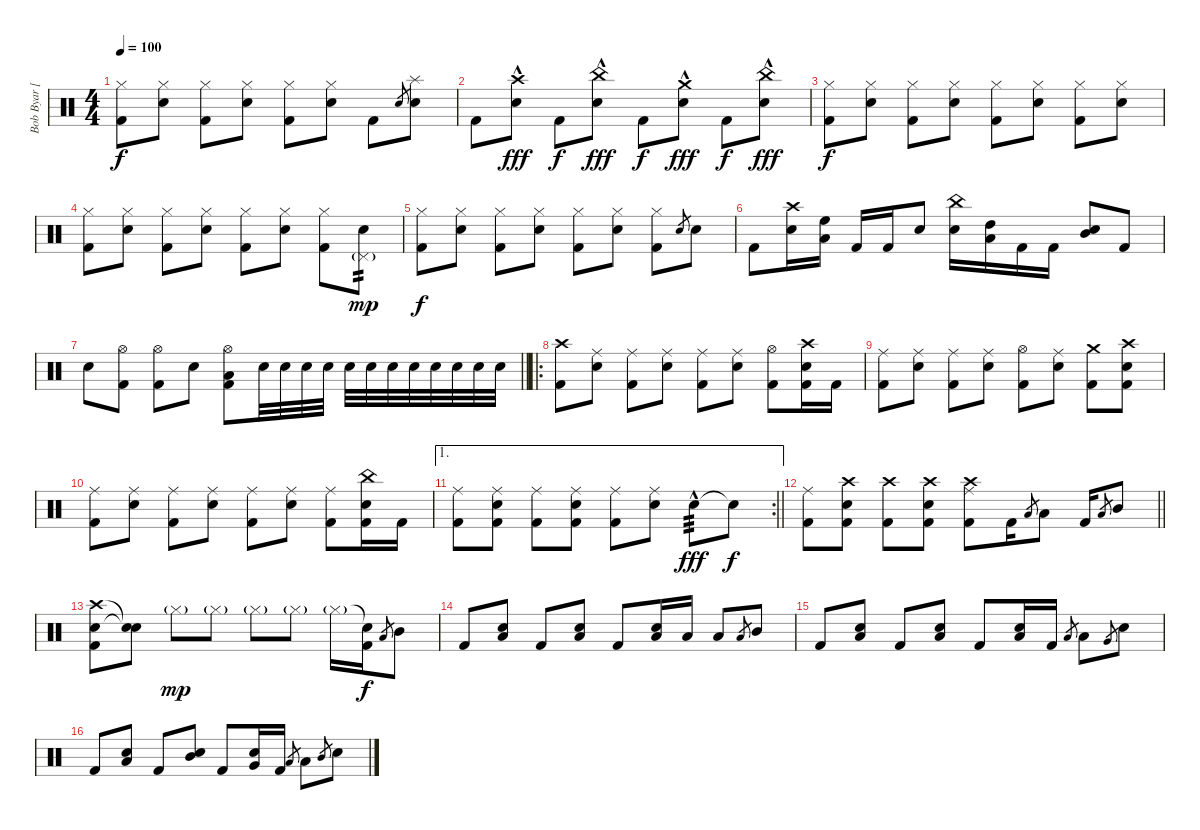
\track ("Bob Byar [Drums]" "Bob Byar [") {instrument percussion}
\staff {score}
\articulation defaults
\ts (4 4)
\tempo 100
\clef neutral
\ks c
("Hi-Hat (closed)" "Kick (hit) 2").8{dy f} ("Hi-Hat (closed)" "Electric Snare (hit)").8 ("Hi-Hat (closed)" "Kick (hit) 2").8 ("Hi-Hat (closed)" "Electric Snare (hit)").8 ("Hi-Hat (closed)" "Kick (hit) 2").8 ("Hi-Hat (closed)" "Electric Snare (hit)").8 "Kick (hit) 2".8 "Electric Snare (hit)".8{gr} ("Splash (hit)" "Electric Snare (hit)").8 |
"Kick (hit) 2".8 ("Crash high (hit)"{hac} "Electric Snare (hit)").8{dy fff} "Kick (hit) 2".8{dy f} ("China (hit)"{hac} "Electric Snare (hit)").8{dy fff} "Kick (hit) 2".8{dy f} ("Crash medium (hit)"{hac} "Electric Snare (hit)").8{dy fff} "Kick (hit) 2".8{dy f} ("China (hit)"{hac} "Electric Snare (hit)").8{dy fff} |
("Hi-Hat (closed)" "Kick (hit) 2").8{dy f} ("Hi-Hat (closed)" "Electric Snare (hit)").8 ("Hi-Hat (closed)" "Kick (hit) 2").8 ("Hi-Hat (closed)" "Electric Snare (hit)").8 ("Hi-Hat (closed)" "Kick (hit) 2").8 ("Hi-Hat (closed)" "Electric Snare (hit)").8 ("Hi-Hat (closed)" "Kick (hit) 2").8 ("Hi-Hat (closed)" "Electric Snare (hit)").8 |
("Hi-Hat (closed)" "Kick (hit) 2").8 ("Hi-Hat (closed)" "Electric Snare (hit)").8 ("Hi-Hat (closed)" "Kick (hit) 2").8 ("Hi-Hat (closed)" "Electric Snare (hit)").8 ("Hi-Hat (closed)" "Kick (hit) 2").8 ("Hi-Hat (closed)" "Electric Snare (hit)").8 ("Hi-Hat (closed)" "Kick (hit) 2").8 ("Pedal Hi-Hat (hit)"{g} "Electric Snare (hit)").8{tp 2 dy mp} |
("Hi-Hat (closed)" "Kick (hit) 2").8{dy f} ("Hi-Hat (closed)" "Electric Snare (hit)").8 ("Hi-Hat (closed)" "Kick (hit) 2").8 ("Hi-Hat (closed)" "Electric Snare (hit)").8 ("Hi-Hat (closed)" "Kick (hit) 2").8 ("Hi-Hat (closed)" "Electric Snare (hit)").8 ("Hi-Hat (closed)" "Kick (hit) 2").8 "Electric Snare (hit)".8{gr} "Electric Snare (hit)".8 |
"Kick (hit) 2".8 ("Crash high (hit)" "Electric Snare (hit)").16 ("High Floor Tom (hit)" "Low Tom (hit)").16 "Kick (hit) 2".16 "Kick (hit) 2".16 "Electric Snare (hit)".8 ("China (hit)" "Electric Snare (hit)").16 ("High Tom (hit)" "Low Tom (hit)").16 "Kick (hit) 2".16 "Kick (hit) 2".16 ("Mid Tom (hit)" "Electric Snare (hit)").8 "Kick (hit) 2".8 |
\barLineRight lightlight "Electric Snare (hit)".8
("Hi-Hat (open)" "Kick (hit) 2").8 ("Hi-Hat (open)" "Kick (hit) 2").8 "Electric Snare (hit)".8 ("Hi-Hat (open)" "Low Tom (hit)" "Kick (hit) 2").8 "Electric Snare (hit)".32 "Electric Snare (hit)".32 "Electric Snare (hit)".32 "Electric Snare (hit)".32 "Electric Snare (hit)".32 "Electric Snare (hit)".32 "Electric Snare (hit)".32 "Electric Snare (hit)".32 "Electric Snare (hit)".32 "Electric Snare (hit)".32 "Electric Snare (hit)".32 "Electric Snare (hit)".32 |
\ro
("Crash high (hit)" "Kick (hit) 2").8 ("Ride (middle)" "Electric Snare (hit)").8 ("Ride (middle)" "Kick (hit) 2").8 ("Ride (middle)" "Electric Snare (hit)").8 ("Ride (middle)" "Kick (hit) 2").8 ("Ride (middle)" "Electric Snare (hit)").8 ("Hi-Hat (open)" "Kick (hit) 2").8 ("Crash high (hit)" "Electric Snare (hit)" "Kick (hit) 2").16 "Kick (hit) 2".16 |
("Ride (middle)" "Kick (hit) 2").8 ("Ride (middle)" "Electric Snare (hit)").8 ("Ride (middle)" "Kick (hit) 2").8 ("Ride (middle)" "Electric Snare (hit)").8 ("Hi-Hat (open)" "Kick (hit) 2").8 ("Ride (middle)" "Electric Snare (hit)").8 ("Crash medium (hit)" "Kick (hit) 2").8 ("Crash high (hit)" "Electric Snare (hit)" "Kick (hit) 2").8 |
("Ride (middle)" "Kick (hit) 2").8 ("Ride (middle)" "Electric Snare (hit)").8 ("Ride (middle)" "Kick (hit) 2").8 ("Ride (middle)" "Electric Snare (hit)").8 ("Ride (middle)" "Kick (hit) 2").8 ("Ride (middle)" "Electric Snare (hit)").8 ("Ride (middle)" "Kick (hit) 2").8 ("China (hit)" "Electric Snare (hit)" "Kick (hit) 2").16 "Kick (hit) 2".16 |
\ae 1
\rc 2
\barLineRight lightlight
("Ride (middle)" "Kick (hit) 2").8 ("Ride (middle)" "Electric Snare (hit)" "Kick (hit) 2").8 ("Ride (middle)" "Kick (hit) 2").8 ("Ride (middle)" "Electric Snare (hit)" "Kick (hit) 2").8 ("Ride (middle)" "Kick (hit) 2").8 ("Ride (middle)" "Electric Snare (hit)").8 "Electric Snare (hit)"{hac}.8{tp 3 dy fff} "Electric Snare (hit)"{t}.8{dy f} |
\barLineRight lightlight
("Ride (middle)" "Kick (hit) 2").8 ("Crash high (hit)" "Electric Snare (hit)" "Kick (hit) 2").8 ("Crash high (hit)" "Kick (hit) 2").8 ("Crash high (hit)" "Electric Snare (hit)" "Kick (hit) 2").8 ("Ride (middle)" "Crash high (hit)" "Kick (hit) 2").8 "Kick (hit) 2".16 "Low Tom (hit)".8{gr} "Low Tom (hit)".8 "Kick (hit) 2".16 "Low Tom (hit)".8{gr} "Mid Tom (hit)".8 |
("Crash high (hit)" "Electric Snare (hit)" "Kick (hit) 2").8 ("Snare (hit)"{t} "Snare (hit)"{t}).8 "Hi-Hat (closed)"{g}.8{dy mp volume 16} "Hi-Hat (closed)"{g}.8 "Hi-Hat (closed)"{g}.8 "Hi-Hat (closed)"{g}.8 "Hi-Hat (closed)"{g}.16 ("Snare (hit)"{t} "Kick (hit) 2").16{dy f} "Low Tom (hit)".8{gr} "Mid Tom (hit)".8 |
"Kick (hit) 2".8 ("Low Tom (hit)" "Electric Snare (hit)").8 "Kick (hit) 2".8 ("Low Floor Tom (hit)" "Electric Snare (hit)").8 "Kick (hit) 2".8 ("Low Tom (hit)" "Electric Snare (hit)").16 "Low Tom (hit)".16 "Low Tom (hit)".8 "Low Tom (hit)".8{gr} "Mid Tom (hit)".8 |
"Kick (hit) 2".8 ("Low Tom (hit)" "Electric Snare (hit)").8 "Kick (hit) 2".8 ("Low Tom (hit)" "Electric Snare (hit)").8 "Kick (hit) 2".8 ("Low Tom (hit)" "Electric Snare (hit)").16 "Kick (hit) 2".16 "Low Floor Tom (hit)".8{gr} "Low Tom (hit)".8 "Very Low Tom (hit)".8{gr} "Electric Snare (hit)".8 |
"Kick (hit) 2".8 ("Low Tom (hit)" "Electric Snare (hit)").8 "Kick (hit) 2".8 ("Mid Tom (hit)" "Electric Snare (hit)").8 "Kick (hit) 2".8 ("Very Low Tom (hit)" "Electric Snare (hit)").16 "Kick (hit) 2".16 "Low Floor Tom (hit)".8{gr} "Low Tom (hit)".8 "Mid Tom (hit)".8{gr} "Electric Snare (hit)".8
